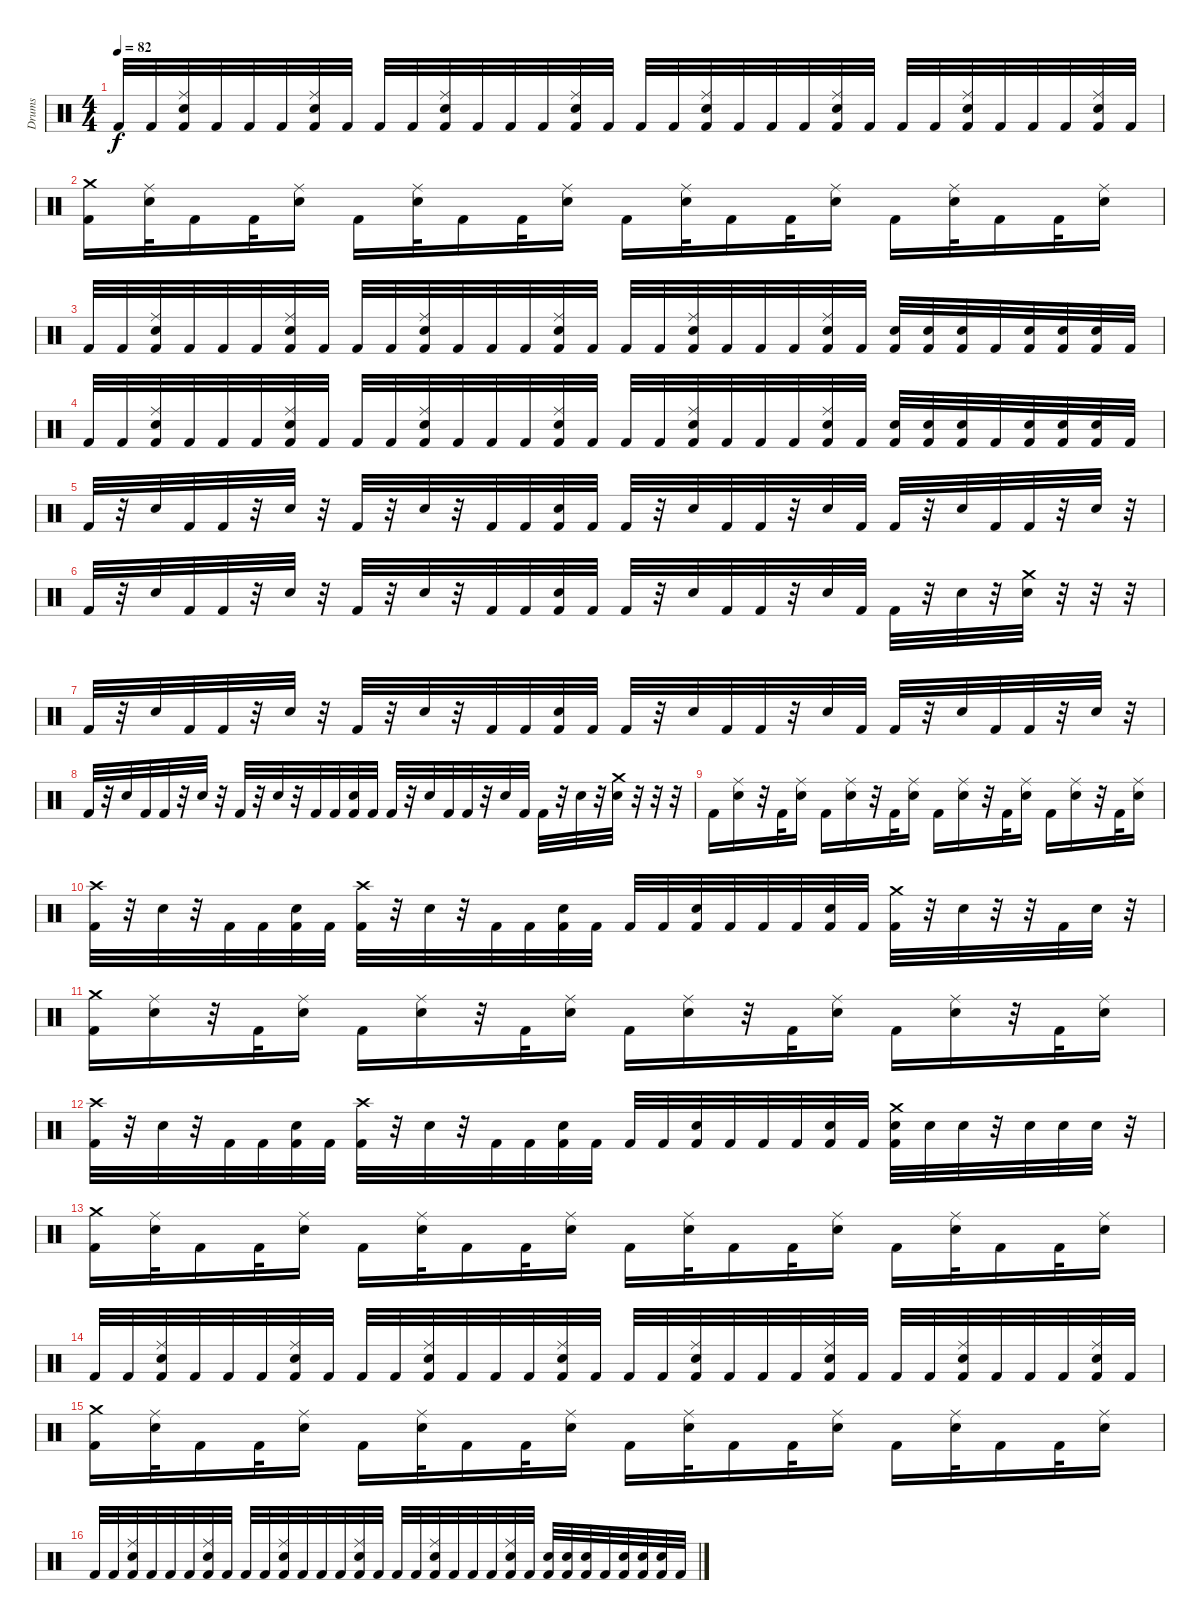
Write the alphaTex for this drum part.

\track ("Drums" "Drums") {instrument percussion}
\staff {score}
\articulation defaults
\ts (4 4)
\tempo 82
\clef neutral
\ks c "Kick (hit) 2".32{dy f} "Kick (hit) 2".32
("Ride (middle)" "Electric Snare (hit)" "Kick (hit) 2").32 "Kick (hit) 2".32 "Kick (hit) 2".32 "Kick (hit) 2".32 ("Ride (middle)" "Electric Snare (hit)" "Kick (hit) 2").32 "Kick (hit) 2".32 "Kick (hit) 2".32 "Kick (hit) 2".32 ("Ride (middle)" "Electric Snare (hit)" "Kick (hit) 2").32 "Kick (hit) 2".32 "Kick (hit) 2".32 "Kick (hit) 2".32 ("Ride (middle)" "Electric Snare (hit)" "Kick (hit) 2").32 "Kick (hit) 2".32 "Kick (hit) 2".32 "Kick (hit) 2".32 ("Ride (middle)" "Electric Snare (hit)" "Kick (hit) 2").32 "Kick (hit) 2".32 "Kick (hit) 2".32 "Kick (hit) 2".32 ("Ride (middle)" "Electric Snare (hit)" "Kick (hit) 2").32 "Kick (hit) 2".32 "Kick (hit) 2".32 "Kick (hit) 2".32 ("Ride (middle)" "Electric Snare (hit)" "Kick (hit) 2").32 "Kick (hit) 2".32 "Kick (hit) 2".32 "Kick (hit) 2".32 ("Ride (middle)" "Electric Snare (hit)" "Kick (hit) 2").32 "Kick (hit) 2".32 |
("Crash medium (hit)" "Kick (hit) 2").16 ("Ride (middle)" "Electric Snare (hit)").32 "Kick (hit) 2".16 "Kick (hit) 2".32 ("Ride (middle)" "Electric Snare (hit)").16 "Kick (hit) 2".16 ("Ride (middle)" "Electric Snare (hit)").32 "Kick (hit) 2".16 "Kick (hit) 2".32 ("Ride (middle)" "Electric Snare (hit)").16 "Kick (hit) 2".16 ("Ride (middle)" "Electric Snare (hit)").32 "Kick (hit) 2".16 "Kick (hit) 2".32 ("Ride (middle)" "Electric Snare (hit)").16 "Kick (hit) 2".16 ("Ride (middle)" "Electric Snare (hit)").32 "Kick (hit) 2".16 "Kick (hit) 2".32 ("Ride (middle)" "Electric Snare (hit)").16 |
"Kick (hit) 2".32 "Kick (hit) 2".32 ("Ride (middle)" "Electric Snare (hit)" "Kick (hit) 2").32 "Kick (hit) 2".32 "Kick (hit) 2".32 "Kick (hit) 2".32 ("Ride (middle)" "Electric Snare (hit)" "Kick (hit) 2").32 "Kick (hit) 2".32 "Kick (hit) 2".32 "Kick (hit) 2".32 ("Ride (middle)" "Electric Snare (hit)" "Kick (hit) 2").32 "Kick (hit) 2".32 "Kick (hit) 2".32 "Kick (hit) 2".32 ("Ride (middle)" "Electric Snare (hit)" "Kick (hit) 2").32 "Kick (hit) 2".32 "Kick (hit) 2".32 "Kick (hit) 2".32 ("Ride (middle)" "Electric Snare (hit)" "Kick (hit) 2").32 "Kick (hit) 2".32 "Kick (hit) 2".32 "Kick (hit) 2".32 ("Ride (middle)" "Electric Snare (hit)" "Kick (hit) 2").32 "Kick (hit) 2".32 ("Electric Snare (hit)" "Kick (hit) 2").32 ("Electric Snare (hit)" "Kick (hit) 2").32 ("Electric Snare (hit)" "Kick (hit) 2").32 "Kick (hit) 2".32 ("Electric Snare (hit)" "Kick (hit) 2").32 ("Electric Snare (hit)" "Kick (hit) 2").32 ("Electric Snare (hit)" "Kick (hit) 2").32 "Kick (hit) 2".32 |
"Kick (hit) 2".32 "Kick (hit) 2".32 ("Ride (middle)" "Electric Snare (hit)" "Kick (hit) 2").32 "Kick (hit) 2".32 "Kick (hit) 2".32 "Kick (hit) 2".32 ("Ride (middle)" "Electric Snare (hit)" "Kick (hit) 2").32 "Kick (hit) 2".32 "Kick (hit) 2".32 "Kick (hit) 2".32 ("Ride (middle)" "Electric Snare (hit)" "Kick (hit) 2").32 "Kick (hit) 2".32 "Kick (hit) 2".32 "Kick (hit) 2".32 ("Ride (middle)" "Electric Snare (hit)" "Kick (hit) 2").32 "Kick (hit) 2".32 "Kick (hit) 2".32 "Kick (hit) 2".32 ("Ride (middle)" "Electric Snare (hit)" "Kick (hit) 2").32 "Kick (hit) 2".32 "Kick (hit) 2".32 "Kick (hit) 2".32 ("Ride (middle)" "Electric Snare (hit)" "Kick (hit) 2").32 "Kick (hit) 2".32 ("Electric Snare (hit)" "Kick (hit) 2").32 ("Electric Snare (hit)" "Kick (hit) 2").32 ("Electric Snare (hit)" "Kick (hit) 2").32 "Kick (hit) 2".32 ("Electric Snare (hit)" "Kick (hit) 2").32 ("Electric Snare (hit)" "Kick (hit) 2").32 ("Electric Snare (hit)" "Kick (hit) 2").32 "Kick (hit) 2".32 |
"Kick (hit) 2".32 r.32 "Electric Snare (hit)".32 "Kick (hit) 2".32 "Kick (hit) 2".32 r.32 "Electric Snare (hit)".32 r.32 "Kick (hit) 2".32 r.32 "Electric Snare (hit)".32 r.32 "Kick (hit) 2".32 "Kick (hit) 2".32 ("Electric Snare (hit)" "Kick (hit) 2").32 "Kick (hit) 2".32 "Kick (hit) 2".32 r.32 "Electric Snare (hit)".32 "Kick (hit) 2".32 "Kick (hit) 2".32 r.32 "Electric Snare (hit)".32 "Kick (hit) 2".32 "Kick (hit) 2".32 r.32 "Electric Snare (hit)".32 "Kick (hit) 2".32 "Kick (hit) 2".32 r.32 "Electric Snare (hit)".32 r.32 |
"Kick (hit) 2".32 r.32 "Electric Snare (hit)".32 "Kick (hit) 2".32 "Kick (hit) 2".32 r.32 "Electric Snare (hit)".32 r.32 "Kick (hit) 2".32 r.32 "Electric Snare (hit)".32 r.32 "Kick (hit) 2".32 "Kick (hit) 2".32 ("Electric Snare (hit)" "Kick (hit) 2").32 "Kick (hit) 2".32 "Kick (hit) 2".32 r.32 "Electric Snare (hit)".32 "Kick (hit) 2".32 "Kick (hit) 2".32 r.32 "Electric Snare (hit)".32 "Kick (hit) 2".32 "Kick (hit) 2".32 r.32 "Electric Snare (hit)".32 r.32 ("Crash medium (hit)" "Electric Snare (hit)").32 r.32 r.32 r.32 |
"Kick (hit) 2".32 r.32 "Electric Snare (hit)".32 "Kick (hit) 2".32 "Kick (hit) 2".32 r.32 "Electric Snare (hit)".32 r.32 "Kick (hit) 2".32 r.32 "Electric Snare (hit)".32 r.32 "Kick (hit) 2".32 "Kick (hit) 2".32 ("Electric Snare (hit)" "Kick (hit) 2").32 "Kick (hit) 2".32 "Kick (hit) 2".32 r.32 "Electric Snare (hit)".32 "Kick (hit) 2".32 "Kick (hit) 2".32 r.32 "Electric Snare (hit)".32 "Kick (hit) 2".32 "Kick (hit) 2".32 r.32 "Electric Snare (hit)".32 "Kick (hit) 2".32 "Kick (hit) 2".32 r.32 "Electric Snare (hit)".32 r.32 |
"Kick (hit) 2".32 r.32 "Electric Snare (hit)".32 "Kick (hit) 2".32 "Kick (hit) 2".32 r.32 "Electric Snare (hit)".32 r.32 "Kick (hit) 2".32 r.32 "Electric Snare (hit)".32 r.32 "Kick (hit) 2".32 "Kick (hit) 2".32 ("Electric Snare (hit)" "Kick (hit) 2").32 "Kick (hit) 2".32 "Kick (hit) 2".32 r.32 "Electric Snare (hit)".32 "Kick (hit) 2".32 "Kick (hit) 2".32 r.32 "Electric Snare (hit)".32 "Kick (hit) 2".32 "Kick (hit) 2".32 r.32 "Electric Snare (hit)".32 r.32 ("Crash medium (hit)" "Electric Snare (hit)").32 r.32 r.32 r.32 |
"Kick (hit) 2".16 ("Ride (middle)" "Electric Snare (hit)").16 r.32 "Kick (hit) 2".32 ("Ride (middle)" "Electric Snare (hit)").16 "Kick (hit) 2".16 ("Ride (middle)" "Electric Snare (hit)").16 r.32 "Kick (hit) 2".32 ("Ride (middle)" "Electric Snare (hit)").16 "Kick (hit) 2".16 ("Ride (middle)" "Electric Snare (hit)").16 r.32 "Kick (hit) 2".32 ("Ride (middle)" "Electric Snare (hit)").16 "Kick (hit) 2".16 ("Ride (middle)" "Electric Snare (hit)").16 r.32 "Kick (hit) 2".32 ("Ride (middle)" "Electric Snare (hit)").16 |
("Crash high (hit)" "Kick (hit) 2").32 r.32 "Electric Snare (hit)".32 r.32 "Kick (hit) 2".32 "Kick (hit) 2".32 ("Electric Snare (hit)" "Kick (hit) 2").32 "Kick (hit) 2".32 ("Crash high (hit)" "Kick (hit) 2").32 r.32 "Electric Snare (hit)".32 r.32 "Kick (hit) 2".32 "Kick (hit) 2".32 ("Electric Snare (hit)" "Kick (hit) 2").32 "Kick (hit) 2".32 "Kick (hit) 2".32 "Kick (hit) 2".32 ("Electric Snare (hit)" "Kick (hit) 2").32 "Kick (hit) 2".32 "Kick (hit) 2".32 "Kick (hit) 2".32 ("Electric Snare (hit)" "Kick (hit) 2").32 "Kick (hit) 2".32 ("Crash medium (hit)" "Kick (hit) 2").32 r.32 "Electric Snare (hit)".32 r.32 r.32 "Kick (hit) 2".32 "Electric Snare (hit)".32 r.32 |
("Crash medium (hit)" "Kick (hit) 2").16 ("Ride (middle)" "Electric Snare (hit)").16 r.32 "Kick (hit) 2".32 ("Ride (middle)" "Electric Snare (hit)").16 "Kick (hit) 2".16 ("Ride (middle)" "Electric Snare (hit)").16 r.32 "Kick (hit) 2".32 ("Ride (middle)" "Electric Snare (hit)").16 "Kick (hit) 2".16 ("Ride (middle)" "Electric Snare (hit)").16 r.32 "Kick (hit) 2".32 ("Ride (middle)" "Electric Snare (hit)").16 "Kick (hit) 2".16 ("Ride (middle)" "Electric Snare (hit)").16 r.32 "Kick (hit) 2".32 ("Ride (middle)" "Electric Snare (hit)").16 |
("Crash high (hit)" "Kick (hit) 2").32 r.32 "Electric Snare (hit)".32 r.32 "Kick (hit) 2".32 "Kick (hit) 2".32 ("Electric Snare (hit)" "Kick (hit) 2").32 "Kick (hit) 2".32 ("Crash high (hit)" "Kick (hit) 2").32 r.32 "Electric Snare (hit)".32 r.32 "Kick (hit) 2".32 "Kick (hit) 2".32 ("Electric Snare (hit)" "Kick (hit) 2").32 "Kick (hit) 2".32 "Kick (hit) 2".32 "Kick (hit) 2".32 ("Electric Snare (hit)" "Kick (hit) 2").32 "Kick (hit) 2".32 "Kick (hit) 2".32 "Kick (hit) 2".32 ("Electric Snare (hit)" "Kick (hit) 2").32 "Kick (hit) 2".32 ("Crash medium (hit)" "Electric Snare (hit)" "Kick (hit) 2").32 "Electric Snare (hit)".32 "Electric Snare (hit)".32 r.32 "Electric Snare (hit)".32 "Electric Snare (hit)".32 "Electric Snare (hit)".32 r.32 |
("Crash medium (hit)" "Kick (hit) 2").16 ("Ride (middle)" "Electric Snare (hit)").32 "Kick (hit) 2".16 "Kick (hit) 2".32 ("Ride (middle)" "Electric Snare (hit)").16 "Kick (hit) 2".16 ("Ride (middle)" "Electric Snare (hit)").32 "Kick (hit) 2".16 "Kick (hit) 2".32 ("Ride (middle)" "Electric Snare (hit)").16 "Kick (hit) 2".16 ("Ride (middle)" "Electric Snare (hit)").32 "Kick (hit) 2".16 "Kick (hit) 2".32 ("Ride (middle)" "Electric Snare (hit)").16 "Kick (hit) 2".16 ("Ride (middle)" "Electric Snare (hit)").32 "Kick (hit) 2".16 "Kick (hit) 2".32 ("Ride (middle)" "Electric Snare (hit)").16 |
"Kick (hit) 2".32 "Kick (hit) 2".32 ("Ride (middle)" "Electric Snare (hit)" "Kick (hit) 2").32 "Kick (hit) 2".32 "Kick (hit) 2".32 "Kick (hit) 2".32 ("Ride (middle)" "Electric Snare (hit)" "Kick (hit) 2").32 "Kick (hit) 2".32 "Kick (hit) 2".32 "Kick (hit) 2".32 ("Ride (middle)" "Electric Snare (hit)" "Kick (hit) 2").32 "Kick (hit) 2".32 "Kick (hit) 2".32 "Kick (hit) 2".32 ("Ride (middle)" "Electric Snare (hit)" "Kick (hit) 2").32 "Kick (hit) 2".32 "Kick (hit) 2".32 "Kick (hit) 2".32 ("Ride (middle)" "Electric Snare (hit)" "Kick (hit) 2").32 "Kick (hit) 2".32 "Kick (hit) 2".32 "Kick (hit) 2".32 ("Ride (middle)" "Electric Snare (hit)" "Kick (hit) 2").32 "Kick (hit) 2".32 "Kick (hit) 2".32 "Kick (hit) 2".32 ("Ride (middle)" "Electric Snare (hit)" "Kick (hit) 2").32 "Kick (hit) 2".32 "Kick (hit) 2".32 "Kick (hit) 2".32 ("Ride (middle)" "Electric Snare (hit)" "Kick (hit) 2").32 "Kick (hit) 2".32 |
("Crash medium (hit)" "Kick (hit) 2").16 ("Ride (middle)" "Electric Snare (hit)").32 "Kick (hit) 2".16 "Kick (hit) 2".32 ("Ride (middle)" "Electric Snare (hit)").16 "Kick (hit) 2".16 ("Ride (middle)" "Electric Snare (hit)").32 "Kick (hit) 2".16 "Kick (hit) 2".32 ("Ride (middle)" "Electric Snare (hit)").16 "Kick (hit) 2".16 ("Ride (middle)" "Electric Snare (hit)").32 "Kick (hit) 2".16 "Kick (hit) 2".32 ("Ride (middle)" "Electric Snare (hit)").16 "Kick (hit) 2".16 ("Ride (middle)" "Electric Snare (hit)").32 "Kick (hit) 2".16 "Kick (hit) 2".32 ("Ride (middle)" "Electric Snare (hit)").16 |
"Kick (hit) 2".32 "Kick (hit) 2".32 ("Ride (middle)" "Electric Snare (hit)" "Kick (hit) 2").32 "Kick (hit) 2".32 "Kick (hit) 2".32 "Kick (hit) 2".32 ("Ride (middle)" "Electric Snare (hit)" "Kick (hit) 2").32 "Kick (hit) 2".32 "Kick (hit) 2".32 "Kick (hit) 2".32 ("Ride (middle)" "Electric Snare (hit)" "Kick (hit) 2").32 "Kick (hit) 2".32 "Kick (hit) 2".32 "Kick (hit) 2".32 ("Ride (middle)" "Electric Snare (hit)" "Kick (hit) 2").32 "Kick (hit) 2".32 "Kick (hit) 2".32 "Kick (hit) 2".32 ("Ride (middle)" "Electric Snare (hit)" "Kick (hit) 2").32 "Kick (hit) 2".32 "Kick (hit) 2".32 "Kick (hit) 2".32 ("Ride (middle)" "Electric Snare (hit)" "Kick (hit) 2").32 "Kick (hit) 2".32 ("Electric Snare (hit)" "Kick (hit) 2").32 ("Electric Snare (hit)" "Kick (hit) 2").32 ("Electric Snare (hit)" "Kick (hit) 2").32 "Kick (hit) 2".32 ("Electric Snare (hit)" "Kick (hit) 2").32 ("Electric Snare (hit)" "Kick (hit) 2").32 ("Electric Snare (hit)" "Kick (hit) 2").32 "Kick (hit) 2".32
